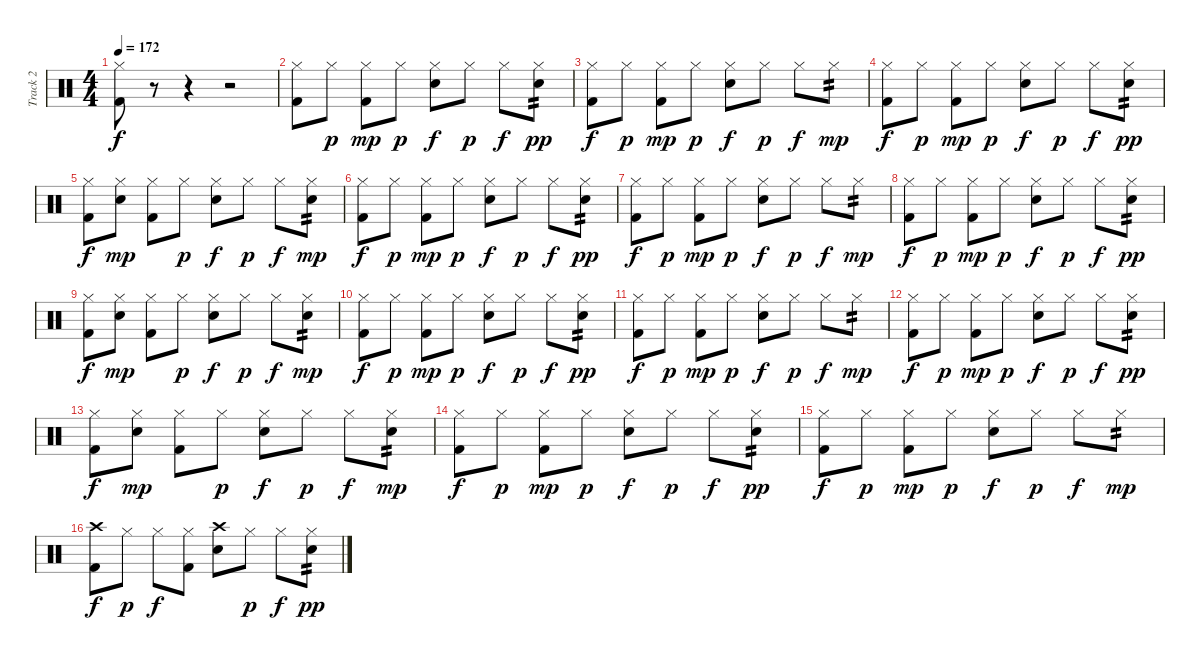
\track ("Track 2" "Track 2") {instrument percussion}
\staff {score}
\articulation defaults
\ts (4 4)
\tempo 172
\clef neutral
\ks c
("Hi-Hat (closed)" "Kick (hit) 2").8{dy f} r.8 r.4 r.2 |
("Hi-Hat (closed)" "Kick (hit) 2").8 "Hi-Hat (closed)".8{dy p} ("Hi-Hat (closed)" "Kick (hit) 2").8{dy mp} "Hi-Hat (closed)".8{dy p} ("Hi-Hat (closed)" "Snare (hit) 2").8{dy f} "Hi-Hat (closed)".8{dy p} "Hi-Hat (closed)".8{dy f} ("Hi-Hat (closed)" "Snare (hit) 2").8{tp 2 dy pp} |
("Hi-Hat (closed)" "Kick (hit) 2").8{dy f} "Hi-Hat (closed)".8{dy p} ("Hi-Hat (closed)" "Kick (hit) 2").8{dy mp} "Hi-Hat (closed)".8{dy p} ("Hi-Hat (closed)" "Snare (hit) 2").8{dy f} "Hi-Hat (closed)".8{dy p} "Hi-Hat (closed)".8{dy f} "Hi-Hat (closed)".8{tp 2 dy mp} |
("Hi-Hat (closed)" "Kick (hit) 2").8{dy f} "Hi-Hat (closed)".8{dy p} ("Hi-Hat (closed)" "Kick (hit) 2").8{dy mp} "Hi-Hat (closed)".8{dy p} ("Hi-Hat (closed)" "Snare (hit) 2").8{dy f} "Hi-Hat (closed)".8{dy p} "Hi-Hat (closed)".8{dy f} ("Hi-Hat (closed)" "Snare (hit) 2").8{tp 2 dy pp} |
("Hi-Hat (closed)" "Kick (hit) 2").8{dy f} ("Hi-Hat (closed)" "Snare (hit) 2").8{dy mp} ("Hi-Hat (closed)" "Kick (hit) 2").8 "Hi-Hat (closed)".8{dy p} ("Hi-Hat (closed)" "Snare (hit) 2").8{dy f} "Hi-Hat (closed)".8{dy p} "Hi-Hat (closed)".8{dy f} ("Hi-Hat (closed)" "Snare (hit) 2").8{tp 2 dy mp} |
("Hi-Hat (closed)" "Kick (hit) 2").8{dy f} "Hi-Hat (closed)".8{dy p} ("Hi-Hat (closed)" "Kick (hit) 2").8{dy mp} "Hi-Hat (closed)".8{dy p} ("Hi-Hat (closed)" "Snare (hit) 2").8{dy f} "Hi-Hat (closed)".8{dy p} "Hi-Hat (closed)".8{dy f} ("Hi-Hat (closed)" "Snare (hit) 2").8{tp 2 dy pp} |
("Hi-Hat (closed)" "Kick (hit) 2").8{dy f} "Hi-Hat (closed)".8{dy p} ("Hi-Hat (closed)" "Kick (hit) 2").8{dy mp} "Hi-Hat (closed)".8{dy p} ("Hi-Hat (closed)" "Snare (hit) 2").8{dy f} "Hi-Hat (closed)".8{dy p} "Hi-Hat (closed)".8{dy f} "Hi-Hat (closed)".8{tp 2 dy mp} |
("Hi-Hat (closed)" "Kick (hit) 2").8{dy f} "Hi-Hat (closed)".8{dy p} ("Hi-Hat (closed)" "Kick (hit) 2").8{dy mp} "Hi-Hat (closed)".8{dy p} ("Hi-Hat (closed)" "Snare (hit) 2").8{dy f} "Hi-Hat (closed)".8{dy p} "Hi-Hat (closed)".8{dy f} ("Hi-Hat (closed)" "Snare (hit) 2").8{tp 2 dy pp} |
("Hi-Hat (closed)" "Kick (hit) 2").8{dy f} ("Hi-Hat (closed)" "Snare (hit) 2").8{dy mp} ("Hi-Hat (closed)" "Kick (hit) 2").8 "Hi-Hat (closed)".8{dy p} ("Hi-Hat (closed)" "Snare (hit) 2").8{dy f} "Hi-Hat (closed)".8{dy p} "Hi-Hat (closed)".8{dy f} ("Hi-Hat (closed)" "Snare (hit) 2").8{tp 2 dy mp} |
("Hi-Hat (closed)" "Kick (hit) 2").8{dy f} "Hi-Hat (closed)".8{dy p} ("Hi-Hat (closed)" "Kick (hit) 2").8{dy mp} "Hi-Hat (closed)".8{dy p} ("Hi-Hat (closed)" "Snare (hit) 2").8{dy f} "Hi-Hat (closed)".8{dy p} "Hi-Hat (closed)".8{dy f} ("Hi-Hat (closed)" "Snare (hit) 2").8{tp 2 dy pp} |
("Hi-Hat (closed)" "Kick (hit) 2").8{dy f} "Hi-Hat (closed)".8{dy p} ("Hi-Hat (closed)" "Kick (hit) 2").8{dy mp} "Hi-Hat (closed)".8{dy p} ("Hi-Hat (closed)" "Snare (hit) 2").8{dy f} "Hi-Hat (closed)".8{dy p} "Hi-Hat (closed)".8{dy f} "Hi-Hat (closed)".8{tp 2 dy mp} |
("Hi-Hat (closed)" "Kick (hit) 2").8{dy f} "Hi-Hat (closed)".8{dy p} ("Hi-Hat (closed)" "Kick (hit) 2").8{dy mp} "Hi-Hat (closed)".8{dy p} ("Hi-Hat (closed)" "Snare (hit) 2").8{dy f} "Hi-Hat (closed)".8{dy p} "Hi-Hat (closed)".8{dy f} ("Hi-Hat (closed)" "Snare (hit) 2").8{tp 2 dy pp} |
("Hi-Hat (closed)" "Kick (hit) 2").8{dy f} ("Hi-Hat (closed)" "Snare (hit) 2").8{dy mp} ("Hi-Hat (closed)" "Kick (hit) 2").8 "Hi-Hat (closed)".8{dy p} ("Hi-Hat (closed)" "Snare (hit) 2").8{dy f} "Hi-Hat (closed)".8{dy p} "Hi-Hat (closed)".8{dy f} ("Hi-Hat (closed)" "Snare (hit) 2").8{tp 2 dy mp} |
("Hi-Hat (closed)" "Kick (hit) 2").8{dy f} "Hi-Hat (closed)".8{dy p} ("Hi-Hat (closed)" "Kick (hit) 2").8{dy mp} "Hi-Hat (closed)".8{dy p} ("Hi-Hat (closed)" "Snare (hit) 2").8{dy f} "Hi-Hat (closed)".8{dy p} "Hi-Hat (closed)".8{dy f} ("Hi-Hat (closed)" "Snare (hit) 2").8{tp 2 dy pp} |
("Hi-Hat (closed)" "Kick (hit) 2").8{dy f} "Hi-Hat (closed)".8{dy p} ("Hi-Hat (closed)" "Kick (hit) 2").8{dy mp} "Hi-Hat (closed)".8{dy p} ("Hi-Hat (closed)" "Snare (hit) 2").8{dy f} "Hi-Hat (closed)".8{dy p} "Hi-Hat (closed)".8{dy f} "Hi-Hat (closed)".8{tp 2 dy mp} |
("Crash high (hit)" "Kick (hit) 2").8{dy f} "Hi-Hat (closed)".8{dy p} "Hi-Hat (closed)".8{dy f} ("Hi-Hat (closed)" "Kick (hit) 2").8 ("Crash high (hit)" "Snare (hit) 2").8 "Hi-Hat (closed)".8{dy p} "Hi-Hat (closed)".8{dy f} ("Hi-Hat (closed)" "Snare (hit) 2").8{tp 2 dy pp}
